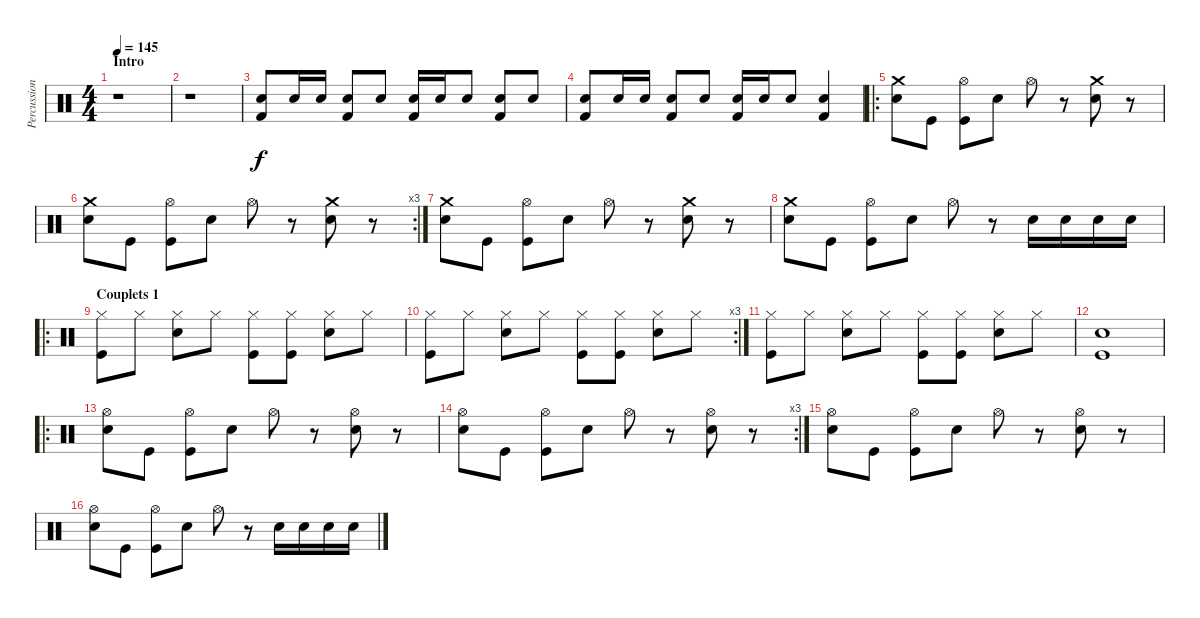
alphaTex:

\track ("Percussions" "Percussion") {instrument percussion}
\staff {score}
\articulation defaults
\ts (4 4)
\section ("" "Intro")
\tempo 145
\clef neutral
\ks c
r.1{dy f} |
r.1 |
("Electric Snare (hit)" "Kick (hit) 2").8 "Electric Snare (hit)".16 "Electric Snare (hit)".16 ("Electric Snare (hit)" "Kick (hit) 2").8 "Electric Snare (hit)".8 ("Electric Snare (hit)" "Kick (hit) 2").16 "Electric Snare (hit)".16 "Electric Snare (hit)".8 ("Electric Snare (hit)" "Kick (hit) 2").8 "Electric Snare (hit)".8 |
("Electric Snare (hit)" "Kick (hit) 2").8 "Electric Snare (hit)".16 "Electric Snare (hit)".16 ("Electric Snare (hit)" "Kick (hit) 2").8 "Electric Snare (hit)".8 ("Electric Snare (hit)" "Kick (hit) 2").16 "Electric Snare (hit)".16 "Electric Snare (hit)".8 ("Electric Snare (hit)" "Kick (hit) 2").4 |
\ro
("Crash medium (hit)" "Electric Snare (hit)").8 "Kick (hit)".8 ("Hi-Hat (open)" "Kick (hit)").8 "Electric Snare (hit)".8 "Hi-Hat (open)".8 r.8 ("Crash medium (hit)" "Electric Snare (hit)").8 r.8 |
\rc 3
("Crash medium (hit)" "Electric Snare (hit)").8 "Kick (hit)".8 ("Hi-Hat (open)" "Kick (hit)").8 "Electric Snare (hit)".8 "Hi-Hat (open)".8 r.8 ("Crash medium (hit)" "Electric Snare (hit)").8 r.8 |
("Crash medium (hit)" "Electric Snare (hit)").8 "Kick (hit)".8 ("Hi-Hat (open)" "Kick (hit)").8 "Electric Snare (hit)".8 "Hi-Hat (open)".8 r.8 ("Crash medium (hit)" "Electric Snare (hit)").8 r.8 |
("Crash medium (hit)" "Electric Snare (hit)").8 "Kick (hit)".8 ("Hi-Hat (open)" "Kick (hit)").8 "Electric Snare (hit)".8 "Hi-Hat (open)".8 r.8 "Electric Snare (hit)".16 "Electric Snare (hit)".16 "Electric Snare (hit)".16 "Electric Snare (hit)".16 |
\ro
\section ("" "Couplets 1")
("Hi-Hat (closed)" "Kick (hit)").8 "Hi-Hat (closed)".8 ("Hi-Hat (closed)" "Electric Snare (hit)").8 "Hi-Hat (closed)".8 ("Hi-Hat (closed)" "Kick (hit)").8 ("Hi-Hat (closed)" "Kick (hit)").8 ("Hi-Hat (closed)" "Electric Snare (hit)").8 "Hi-Hat (closed)".8 |
\rc 3
("Hi-Hat (closed)" "Kick (hit)").8 "Hi-Hat (closed)".8 ("Hi-Hat (closed)" "Electric Snare (hit)").8 "Hi-Hat (closed)".8 ("Hi-Hat (closed)" "Kick (hit)").8 ("Hi-Hat (closed)" "Kick (hit)").8 ("Hi-Hat (closed)" "Electric Snare (hit)").8 "Hi-Hat (closed)".8 |
("Hi-Hat (closed)" "Kick (hit)").8 "Hi-Hat (closed)".8 ("Hi-Hat (closed)" "Electric Snare (hit)").8 "Hi-Hat (closed)".8 ("Hi-Hat (closed)" "Kick (hit)").8 ("Hi-Hat (closed)" "Kick (hit)").8 ("Hi-Hat (closed)" "Electric Snare (hit)").8 "Hi-Hat (closed)".8 |
("Electric Snare (hit)" "Kick (hit)").1 |
\ro
("Hi-Hat (open)" "Electric Snare (hit)").8 "Kick (hit)".8 ("Hi-Hat (open)" "Kick (hit)").8 "Electric Snare (hit)".8 "Hi-Hat (open)".8 r.8 ("Hi-Hat (open)" "Electric Snare (hit)").8 r.8 |
\rc 3
("Hi-Hat (open)" "Electric Snare (hit)").8 "Kick (hit)".8 ("Hi-Hat (open)" "Kick (hit)").8 "Electric Snare (hit)".8 "Hi-Hat (open)".8 r.8 ("Hi-Hat (open)" "Electric Snare (hit)").8 r.8 |
("Hi-Hat (open)" "Electric Snare (hit)").8 "Kick (hit)".8 ("Hi-Hat (open)" "Kick (hit)").8 "Electric Snare (hit)".8 "Hi-Hat (open)".8 r.8 ("Hi-Hat (open)" "Electric Snare (hit)").8 r.8 |
("Hi-Hat (open)" "Electric Snare (hit)").8 "Kick (hit)".8 ("Hi-Hat (open)" "Kick (hit)").8 "Electric Snare (hit)".8 "Hi-Hat (open)".8 r.8 "Electric Snare (hit)".16 "Electric Snare (hit)".16 "Electric Snare (hit)".16 "Electric Snare (hit)".16
